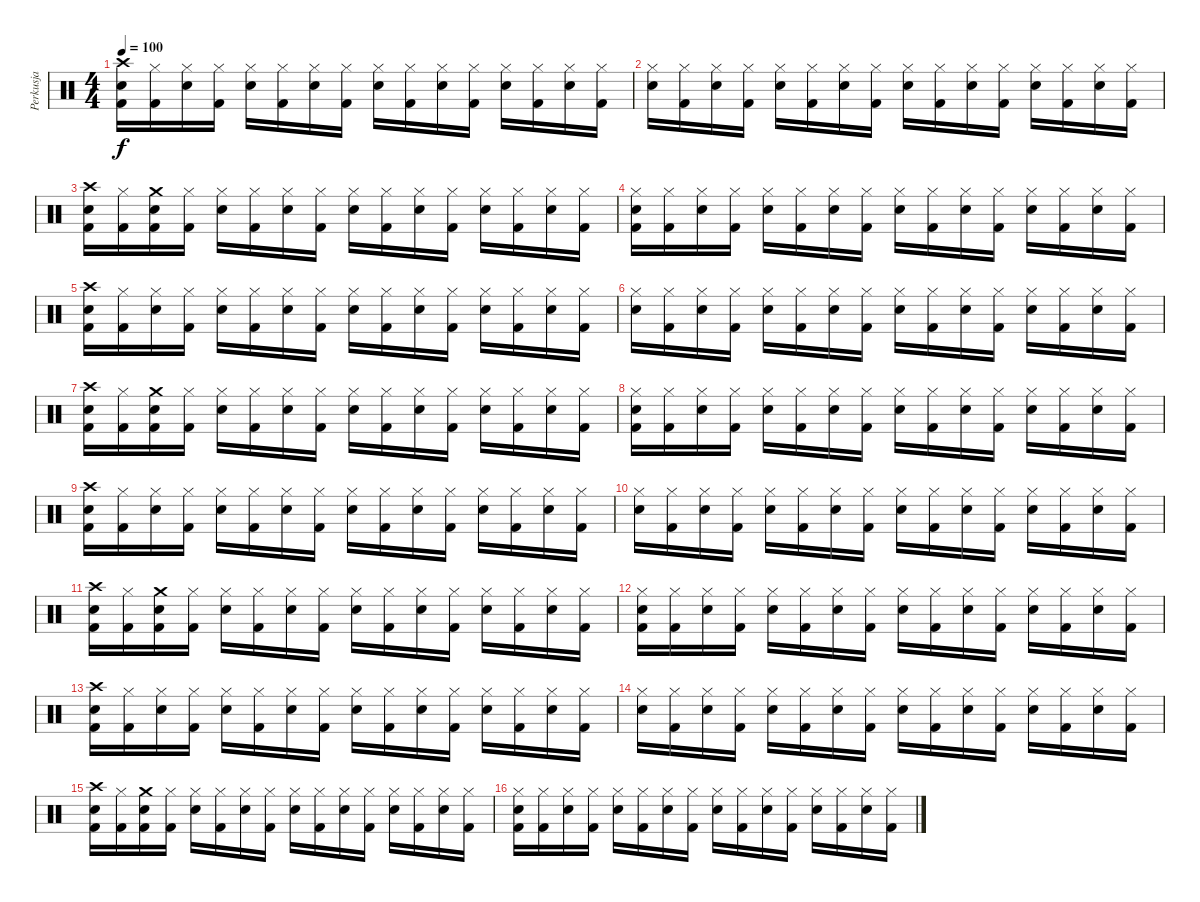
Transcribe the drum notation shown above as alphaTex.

\track ("Perkusja" "Perkusja") {instrument percussion}
\staff {score}
\articulation defaults
\ts (4 4)
\tempo 100
\clef neutral
\ks c
("Crash high (hit)" "Electric Snare (hit)" "Kick (hit) 2").16{dy f} ("Hi-Hat (closed)" "Kick (hit) 2").16 ("Hi-Hat (closed)" "Electric Snare (hit)").16 ("Hi-Hat (closed)" "Kick (hit) 2").16 ("Hi-Hat (closed)" "Electric Snare (hit)").16 ("Hi-Hat (closed)" "Kick (hit) 2").16 ("Hi-Hat (closed)" "Electric Snare (hit)").16 ("Hi-Hat (closed)" "Kick (hit) 2").16 ("Hi-Hat (closed)" "Electric Snare (hit)").16 ("Hi-Hat (closed)" "Kick (hit) 2").16 ("Hi-Hat (closed)" "Electric Snare (hit)").16 ("Hi-Hat (closed)" "Kick (hit) 2").16 ("Hi-Hat (closed)" "Electric Snare (hit)").16 ("Hi-Hat (closed)" "Kick (hit) 2").16 ("Hi-Hat (closed)" "Electric Snare (hit)").16 ("Hi-Hat (closed)" "Kick (hit) 2").16 |
("Hi-Hat (closed)" "Electric Snare (hit)").16 ("Hi-Hat (closed)" "Kick (hit) 2").16 ("Hi-Hat (closed)" "Electric Snare (hit)").16 ("Hi-Hat (closed)" "Kick (hit) 2").16 ("Hi-Hat (closed)" "Electric Snare (hit)").16 ("Hi-Hat (closed)" "Kick (hit) 2").16 ("Hi-Hat (closed)" "Electric Snare (hit)").16 ("Hi-Hat (closed)" "Kick (hit) 2").16 ("Hi-Hat (closed)" "Electric Snare (hit)").16 ("Hi-Hat (closed)" "Kick (hit) 2").16 ("Hi-Hat (closed)" "Electric Snare (hit)").16 ("Hi-Hat (closed)" "Kick (hit) 2").16 ("Hi-Hat (closed)" "Electric Snare (hit)").16 ("Hi-Hat (closed)" "Kick (hit) 2").16 ("Hi-Hat (closed)" "Electric Snare (hit)").16 ("Hi-Hat (closed)" "Kick (hit) 2").16 |
("Crash high (hit)" "Electric Snare (hit)" "Kick (hit) 2").16 ("Hi-Hat (closed)" "Kick (hit) 2").16 ("Crash medium (hit)" "Electric Snare (hit)" "Kick (hit) 2").16 ("Hi-Hat (closed)" "Kick (hit) 2").16 ("Hi-Hat (closed)" "Electric Snare (hit)").16 ("Hi-Hat (closed)" "Kick (hit) 2").16 ("Hi-Hat (closed)" "Electric Snare (hit)").16 ("Hi-Hat (closed)" "Kick (hit) 2").16 ("Hi-Hat (closed)" "Electric Snare (hit)").16 ("Hi-Hat (closed)" "Kick (hit) 2").16 ("Hi-Hat (closed)" "Electric Snare (hit)").16 ("Hi-Hat (closed)" "Kick (hit) 2").16 ("Hi-Hat (closed)" "Electric Snare (hit)").16 ("Hi-Hat (closed)" "Kick (hit) 2").16 ("Hi-Hat (closed)" "Electric Snare (hit)").16 ("Hi-Hat (closed)" "Kick (hit) 2").16 |
("Hi-Hat (closed)" "Electric Snare (hit)" "Kick (hit) 2").16 ("Hi-Hat (closed)" "Kick (hit) 2").16 ("Hi-Hat (closed)" "Electric Snare (hit)").16 ("Hi-Hat (closed)" "Kick (hit) 2").16 ("Hi-Hat (closed)" "Electric Snare (hit)").16 ("Hi-Hat (closed)" "Kick (hit) 2").16 ("Hi-Hat (closed)" "Electric Snare (hit)").16 ("Hi-Hat (closed)" "Kick (hit) 2").16 ("Hi-Hat (closed)" "Electric Snare (hit)").16 ("Hi-Hat (closed)" "Kick (hit) 2").16 ("Hi-Hat (closed)" "Electric Snare (hit)").16 ("Hi-Hat (closed)" "Kick (hit) 2").16 ("Hi-Hat (closed)" "Electric Snare (hit)").16 ("Hi-Hat (closed)" "Kick (hit) 2").16 ("Hi-Hat (closed)" "Electric Snare (hit)").16 ("Hi-Hat (closed)" "Kick (hit) 2").16 |
("Crash high (hit)" "Electric Snare (hit)" "Kick (hit) 2").16 ("Hi-Hat (closed)" "Kick (hit) 2").16 ("Hi-Hat (closed)" "Electric Snare (hit)").16 ("Hi-Hat (closed)" "Kick (hit) 2").16 ("Hi-Hat (closed)" "Electric Snare (hit)").16 ("Hi-Hat (closed)" "Kick (hit) 2").16 ("Hi-Hat (closed)" "Electric Snare (hit)").16 ("Hi-Hat (closed)" "Kick (hit) 2").16 ("Hi-Hat (closed)" "Electric Snare (hit)").16 ("Hi-Hat (closed)" "Kick (hit) 2").16 ("Hi-Hat (closed)" "Electric Snare (hit)").16 ("Hi-Hat (closed)" "Kick (hit) 2").16 ("Hi-Hat (closed)" "Electric Snare (hit)").16 ("Hi-Hat (closed)" "Kick (hit) 2").16 ("Hi-Hat (closed)" "Electric Snare (hit)").16 ("Hi-Hat (closed)" "Kick (hit) 2").16 |
("Hi-Hat (closed)" "Electric Snare (hit)").16 ("Hi-Hat (closed)" "Kick (hit) 2").16 ("Hi-Hat (closed)" "Electric Snare (hit)").16 ("Hi-Hat (closed)" "Kick (hit) 2").16 ("Hi-Hat (closed)" "Electric Snare (hit)").16 ("Hi-Hat (closed)" "Kick (hit) 2").16 ("Hi-Hat (closed)" "Electric Snare (hit)").16 ("Hi-Hat (closed)" "Kick (hit) 2").16 ("Hi-Hat (closed)" "Electric Snare (hit)").16 ("Hi-Hat (closed)" "Kick (hit) 2").16 ("Hi-Hat (closed)" "Electric Snare (hit)").16 ("Hi-Hat (closed)" "Kick (hit) 2").16 ("Hi-Hat (closed)" "Electric Snare (hit)").16 ("Hi-Hat (closed)" "Kick (hit) 2").16 ("Hi-Hat (closed)" "Electric Snare (hit)").16 ("Hi-Hat (closed)" "Kick (hit) 2").16 |
("Crash high (hit)" "Electric Snare (hit)" "Kick (hit) 2").16 ("Hi-Hat (closed)" "Kick (hit) 2").16 ("Crash medium (hit)" "Electric Snare (hit)" "Kick (hit) 2").16 ("Hi-Hat (closed)" "Kick (hit) 2").16 ("Hi-Hat (closed)" "Electric Snare (hit)").16 ("Hi-Hat (closed)" "Kick (hit) 2").16 ("Hi-Hat (closed)" "Electric Snare (hit)").16 ("Hi-Hat (closed)" "Kick (hit) 2").16 ("Hi-Hat (closed)" "Electric Snare (hit)").16 ("Hi-Hat (closed)" "Kick (hit) 2").16 ("Hi-Hat (closed)" "Electric Snare (hit)").16 ("Hi-Hat (closed)" "Kick (hit) 2").16 ("Hi-Hat (closed)" "Electric Snare (hit)").16 ("Hi-Hat (closed)" "Kick (hit) 2").16 ("Hi-Hat (closed)" "Electric Snare (hit)").16 ("Hi-Hat (closed)" "Kick (hit) 2").16 |
("Hi-Hat (closed)" "Electric Snare (hit)" "Kick (hit) 2").16 ("Hi-Hat (closed)" "Kick (hit) 2").16 ("Hi-Hat (closed)" "Electric Snare (hit)").16 ("Hi-Hat (closed)" "Kick (hit) 2").16 ("Hi-Hat (closed)" "Electric Snare (hit)").16 ("Hi-Hat (closed)" "Kick (hit) 2").16 ("Hi-Hat (closed)" "Electric Snare (hit)").16 ("Hi-Hat (closed)" "Kick (hit) 2").16 ("Hi-Hat (closed)" "Electric Snare (hit)").16 ("Hi-Hat (closed)" "Kick (hit) 2").16 ("Hi-Hat (closed)" "Electric Snare (hit)").16 ("Hi-Hat (closed)" "Kick (hit) 2").16 ("Hi-Hat (closed)" "Electric Snare (hit)").16 ("Hi-Hat (closed)" "Kick (hit) 2").16 ("Hi-Hat (closed)" "Electric Snare (hit)").16 ("Hi-Hat (closed)" "Kick (hit) 2").16 |
("Crash high (hit)" "Electric Snare (hit)" "Kick (hit) 2").16 ("Hi-Hat (closed)" "Kick (hit) 2").16 ("Hi-Hat (closed)" "Electric Snare (hit)").16 ("Hi-Hat (closed)" "Kick (hit) 2").16 ("Hi-Hat (closed)" "Electric Snare (hit)").16 ("Hi-Hat (closed)" "Kick (hit) 2").16 ("Hi-Hat (closed)" "Electric Snare (hit)").16 ("Hi-Hat (closed)" "Kick (hit) 2").16 ("Hi-Hat (closed)" "Electric Snare (hit)").16 ("Hi-Hat (closed)" "Kick (hit) 2").16 ("Hi-Hat (closed)" "Electric Snare (hit)").16 ("Hi-Hat (closed)" "Kick (hit) 2").16 ("Hi-Hat (closed)" "Electric Snare (hit)").16 ("Hi-Hat (closed)" "Kick (hit) 2").16 ("Hi-Hat (closed)" "Electric Snare (hit)").16 ("Hi-Hat (closed)" "Kick (hit) 2").16 |
("Hi-Hat (closed)" "Electric Snare (hit)").16 ("Hi-Hat (closed)" "Kick (hit) 2").16 ("Hi-Hat (closed)" "Electric Snare (hit)").16 ("Hi-Hat (closed)" "Kick (hit) 2").16 ("Hi-Hat (closed)" "Electric Snare (hit)").16 ("Hi-Hat (closed)" "Kick (hit) 2").16 ("Hi-Hat (closed)" "Electric Snare (hit)").16 ("Hi-Hat (closed)" "Kick (hit) 2").16 ("Hi-Hat (closed)" "Electric Snare (hit)").16 ("Hi-Hat (closed)" "Kick (hit) 2").16 ("Hi-Hat (closed)" "Electric Snare (hit)").16 ("Hi-Hat (closed)" "Kick (hit) 2").16 ("Hi-Hat (closed)" "Electric Snare (hit)").16 ("Hi-Hat (closed)" "Kick (hit) 2").16 ("Hi-Hat (closed)" "Electric Snare (hit)").16 ("Hi-Hat (closed)" "Kick (hit) 2").16 |
("Crash high (hit)" "Electric Snare (hit)" "Kick (hit) 2").16 ("Hi-Hat (closed)" "Kick (hit) 2").16 ("Crash medium (hit)" "Electric Snare (hit)" "Kick (hit) 2").16 ("Hi-Hat (closed)" "Kick (hit) 2").16 ("Hi-Hat (closed)" "Electric Snare (hit)").16 ("Hi-Hat (closed)" "Kick (hit) 2").16 ("Hi-Hat (closed)" "Electric Snare (hit)").16 ("Hi-Hat (closed)" "Kick (hit) 2").16 ("Hi-Hat (closed)" "Electric Snare (hit)").16 ("Hi-Hat (closed)" "Kick (hit) 2").16 ("Hi-Hat (closed)" "Electric Snare (hit)").16 ("Hi-Hat (closed)" "Kick (hit) 2").16 ("Hi-Hat (closed)" "Electric Snare (hit)").16 ("Hi-Hat (closed)" "Kick (hit) 2").16 ("Hi-Hat (closed)" "Electric Snare (hit)").16 ("Hi-Hat (closed)" "Kick (hit) 2").16 |
("Hi-Hat (closed)" "Electric Snare (hit)" "Kick (hit) 2").16 ("Hi-Hat (closed)" "Kick (hit) 2").16 ("Hi-Hat (closed)" "Electric Snare (hit)").16 ("Hi-Hat (closed)" "Kick (hit) 2").16 ("Hi-Hat (closed)" "Electric Snare (hit)").16 ("Hi-Hat (closed)" "Kick (hit) 2").16 ("Hi-Hat (closed)" "Electric Snare (hit)").16 ("Hi-Hat (closed)" "Kick (hit) 2").16 ("Hi-Hat (closed)" "Electric Snare (hit)").16 ("Hi-Hat (closed)" "Kick (hit) 2").16 ("Hi-Hat (closed)" "Electric Snare (hit)").16 ("Hi-Hat (closed)" "Kick (hit) 2").16 ("Hi-Hat (closed)" "Electric Snare (hit)").16 ("Hi-Hat (closed)" "Kick (hit) 2").16 ("Hi-Hat (closed)" "Electric Snare (hit)").16 ("Hi-Hat (closed)" "Kick (hit) 2").16 |
("Crash high (hit)" "Electric Snare (hit)" "Kick (hit) 2").16 ("Hi-Hat (closed)" "Kick (hit) 2").16 ("Hi-Hat (closed)" "Electric Snare (hit)").16 ("Hi-Hat (closed)" "Kick (hit) 2").16 ("Hi-Hat (closed)" "Electric Snare (hit)").16 ("Hi-Hat (closed)" "Kick (hit) 2").16 ("Hi-Hat (closed)" "Electric Snare (hit)").16 ("Hi-Hat (closed)" "Kick (hit) 2").16 ("Hi-Hat (closed)" "Electric Snare (hit)").16 ("Hi-Hat (closed)" "Kick (hit) 2").16 ("Hi-Hat (closed)" "Electric Snare (hit)").16 ("Hi-Hat (closed)" "Kick (hit) 2").16 ("Hi-Hat (closed)" "Electric Snare (hit)").16 ("Hi-Hat (closed)" "Kick (hit) 2").16 ("Hi-Hat (closed)" "Electric Snare (hit)").16 ("Hi-Hat (closed)" "Kick (hit) 2").16 |
("Hi-Hat (closed)" "Electric Snare (hit)").16 ("Hi-Hat (closed)" "Kick (hit) 2").16 ("Hi-Hat (closed)" "Electric Snare (hit)").16 ("Hi-Hat (closed)" "Kick (hit) 2").16 ("Hi-Hat (closed)" "Electric Snare (hit)").16 ("Hi-Hat (closed)" "Kick (hit) 2").16 ("Hi-Hat (closed)" "Electric Snare (hit)").16 ("Hi-Hat (closed)" "Kick (hit) 2").16 ("Hi-Hat (closed)" "Electric Snare (hit)").16 ("Hi-Hat (closed)" "Kick (hit) 2").16 ("Hi-Hat (closed)" "Electric Snare (hit)").16 ("Hi-Hat (closed)" "Kick (hit) 2").16 ("Hi-Hat (closed)" "Electric Snare (hit)").16 ("Hi-Hat (closed)" "Kick (hit) 2").16 ("Hi-Hat (closed)" "Electric Snare (hit)").16 ("Hi-Hat (closed)" "Kick (hit) 2").16 |
("Crash high (hit)" "Electric Snare (hit)" "Kick (hit) 2").16 ("Hi-Hat (closed)" "Kick (hit) 2").16 ("Crash medium (hit)" "Electric Snare (hit)" "Kick (hit) 2").16 ("Hi-Hat (closed)" "Kick (hit) 2").16 ("Hi-Hat (closed)" "Electric Snare (hit)").16 ("Hi-Hat (closed)" "Kick (hit) 2").16 ("Hi-Hat (closed)" "Electric Snare (hit)").16 ("Hi-Hat (closed)" "Kick (hit) 2").16 ("Hi-Hat (closed)" "Electric Snare (hit)").16 ("Hi-Hat (closed)" "Kick (hit) 2").16 ("Hi-Hat (closed)" "Electric Snare (hit)").16 ("Hi-Hat (closed)" "Kick (hit) 2").16 ("Hi-Hat (closed)" "Electric Snare (hit)").16 ("Hi-Hat (closed)" "Kick (hit) 2").16 ("Hi-Hat (closed)" "Electric Snare (hit)").16 ("Hi-Hat (closed)" "Kick (hit) 2").16 |
("Hi-Hat (closed)" "Electric Snare (hit)" "Kick (hit) 2").16 ("Hi-Hat (closed)" "Kick (hit) 2").16 ("Hi-Hat (closed)" "Electric Snare (hit)").16 ("Hi-Hat (closed)" "Kick (hit) 2").16 ("Hi-Hat (closed)" "Electric Snare (hit)").16 ("Hi-Hat (closed)" "Kick (hit) 2").16 ("Hi-Hat (closed)" "Electric Snare (hit)").16 ("Hi-Hat (closed)" "Kick (hit) 2").16 ("Hi-Hat (closed)" "Electric Snare (hit)").16 ("Hi-Hat (closed)" "Kick (hit) 2").16 ("Hi-Hat (closed)" "Electric Snare (hit)").16 ("Hi-Hat (closed)" "Kick (hit) 2").16 ("Hi-Hat (closed)" "Electric Snare (hit)").16 ("Hi-Hat (closed)" "Kick (hit) 2").16 ("Hi-Hat (closed)" "Electric Snare (hit)").16 ("Hi-Hat (closed)" "Kick (hit) 2").16
